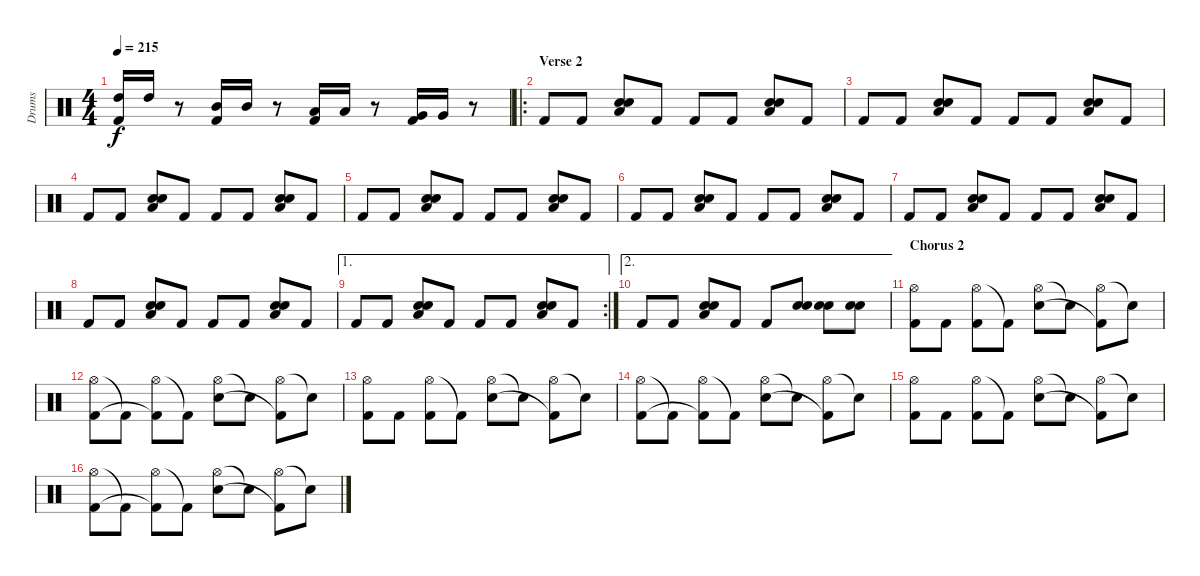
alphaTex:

\track ("Drums" "Drums") {instrument percussion}
\staff {score}
\articulation defaults
\ts (4 4)
\tempo 215
\clef neutral
\ks c
("Kick (hit) 2" "High Tom (hit)").16{dy f} "High Tom (hit)".16 r.8 ("Kick (hit) 2" "Mid Tom (hit)").16 "Mid Tom (hit)".16 r.8 ("Kick (hit) 2" "Low Tom (hit)").16 "Low Tom (hit)".16 r.8 ("Kick (hit) 2" "Very Low Tom (hit)").16 "Very Low Tom (hit)".16 r.8 |
\ro
\section ("" "Verse 2")
"Kick (hit) 2".8 "Kick (hit) 2".8 ("Low Floor Tom (hit)" "Electric Snare (hit)" "Electric Snare (hit)").8 "Kick (hit) 2".8 "Kick (hit) 2".8 "Kick (hit) 2".8 ("Low Floor Tom (hit)" "Electric Snare (hit)" "Electric Snare (hit)").8 "Kick (hit) 2".8 |
"Kick (hit) 2".8 "Kick (hit) 2".8 ("Low Floor Tom (hit)" "Electric Snare (hit)" "Electric Snare (hit)").8 "Kick (hit) 2".8 "Kick (hit) 2".8 "Kick (hit) 2".8 ("Low Floor Tom (hit)" "Electric Snare (hit)" "Electric Snare (hit)").8 "Kick (hit) 2".8 |
"Kick (hit) 2".8 "Kick (hit) 2".8 ("Low Floor Tom (hit)" "Electric Snare (hit)" "Electric Snare (hit)").8 "Kick (hit) 2".8 "Kick (hit) 2".8 "Kick (hit) 2".8 ("Low Floor Tom (hit)" "Electric Snare (hit)" "Electric Snare (hit)").8 "Kick (hit) 2".8 |
"Kick (hit) 2".8 "Kick (hit) 2".8 ("Low Floor Tom (hit)" "Electric Snare (hit)" "Electric Snare (hit)").8 "Kick (hit) 2".8 "Kick (hit) 2".8 "Kick (hit) 2".8 ("Low Floor Tom (hit)" "Electric Snare (hit)" "Electric Snare (hit)").8 "Kick (hit) 2".8 |
"Kick (hit) 2".8 "Kick (hit) 2".8 ("Low Floor Tom (hit)" "Electric Snare (hit)" "Electric Snare (hit)").8 "Kick (hit) 2".8 "Kick (hit) 2".8 "Kick (hit) 2".8 ("Low Floor Tom (hit)" "Electric Snare (hit)" "Electric Snare (hit)").8 "Kick (hit) 2".8 |
"Kick (hit) 2".8 "Kick (hit) 2".8 ("Low Floor Tom (hit)" "Electric Snare (hit)" "Electric Snare (hit)").8 "Kick (hit) 2".8 "Kick (hit) 2".8 "Kick (hit) 2".8 ("Low Floor Tom (hit)" "Electric Snare (hit)" "Electric Snare (hit)").8 "Kick (hit) 2".8 |
"Kick (hit) 2".8 "Kick (hit) 2".8 ("Low Floor Tom (hit)" "Electric Snare (hit)" "Electric Snare (hit)").8 "Kick (hit) 2".8 "Kick (hit) 2".8 "Kick (hit) 2".8 ("Low Floor Tom (hit)" "Electric Snare (hit)" "Electric Snare (hit)").8 "Kick (hit) 2".8 |
\ae 1
\rc 2 "Kick (hit) 2".8 "Kick (hit) 2".8
("Low Floor Tom (hit)" "Electric Snare (hit)" "Electric Snare (hit)").8 "Kick (hit) 2".8 "Kick (hit) 2".8 "Kick (hit) 2".8 ("Low Floor Tom (hit)" "Electric Snare (hit)" "Electric Snare (hit)").8 "Kick (hit) 2".8 |
\ae 2 "Kick (hit) 2".8 "Kick (hit) 2".8
("Low Floor Tom (hit)" "Electric Snare (hit)" "Electric Snare (hit)").8 "Kick (hit) 2".8 "Kick (hit) 2".8 ("Electric Snare (hit)" "Electric Snare (hit)").8 ("Electric Snare (hit)" "Electric Snare (hit)").8 ("Electric Snare (hit)" "Electric Snare (hit)").8 |
\section ("" "Chorus 2")
("Hi-Hat (open)" "Kick (hit) 2").8 "Kick (hit) 2".8 ("Hi-Hat (open)" "Kick (hit) 2").8 "Kick (hit) 2"{t}.8 ("Hi-Hat (open)" "Electric Snare (hit)").8 "Snare (hit)"{t}.8 ("Hi-Hat (open)" "Kick (hit) 2"{t}).8 "Snare (hit)"{t}.8 |
("Hi-Hat (open)" "Kick (hit) 2").8 "Kick (hit) 2"{t}.8 ("Hi-Hat (open)" "Kick (hit) 2"{t}).8 "Kick (hit) 2"{t}.8 ("Hi-Hat (open)" "Electric Snare (hit)").8 "Snare (hit)"{t}.8 ("Hi-Hat (open)" "Kick (hit) 2"{t}).8 "Snare (hit)"{t}.8 |
("Hi-Hat (open)" "Kick (hit) 2").8 "Kick (hit) 2".8 ("Hi-Hat (open)" "Kick (hit) 2").8 "Kick (hit) 2"{t}.8 ("Hi-Hat (open)" "Electric Snare (hit)").8 "Snare (hit)"{t}.8 ("Hi-Hat (open)" "Kick (hit) 2"{t}).8 "Snare (hit)"{t}.8 |
("Hi-Hat (open)" "Kick (hit) 2").8 "Kick (hit) 2"{t}.8 ("Hi-Hat (open)" "Kick (hit) 2"{t}).8 "Kick (hit) 2"{t}.8 ("Hi-Hat (open)" "Electric Snare (hit)").8 "Snare (hit)"{t}.8 ("Hi-Hat (open)" "Kick (hit) 2"{t}).8 "Snare (hit)"{t}.8 |
("Hi-Hat (open)" "Kick (hit) 2").8 "Kick (hit) 2".8 ("Hi-Hat (open)" "Kick (hit) 2").8 "Kick (hit) 2"{t}.8 ("Hi-Hat (open)" "Electric Snare (hit)").8 "Snare (hit)"{t}.8 ("Hi-Hat (open)" "Kick (hit) 2"{t}).8 "Snare (hit)"{t}.8 |
("Hi-Hat (open)" "Kick (hit) 2").8 "Kick (hit) 2"{t}.8 ("Hi-Hat (open)" "Kick (hit) 2"{t}).8 "Kick (hit) 2"{t}.8 ("Hi-Hat (open)" "Electric Snare (hit)").8 "Snare (hit)"{t}.8 ("Hi-Hat (open)" "Kick (hit) 2"{t}).8 "Snare (hit)"{t}.8
